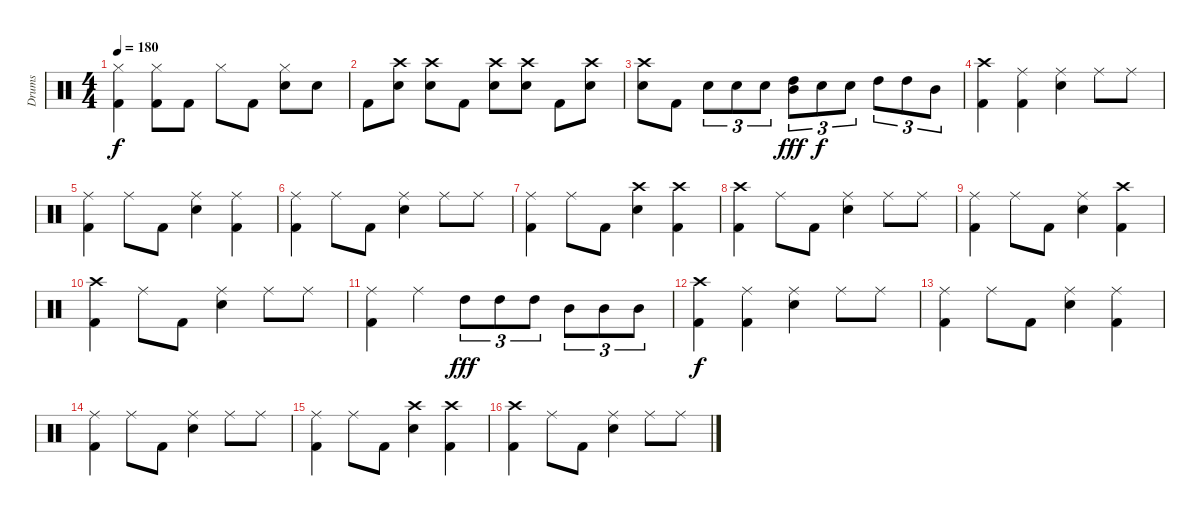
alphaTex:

\track ("Drums" "Drums") {instrument percussion}
\staff {score}
\articulation defaults
\ts (4 4)
\tempo 180
\clef neutral
\ks c
("Hi-Hat (closed)" "Kick (hit) 2").4{dy f} ("Hi-Hat (closed)" "Kick (hit) 2").8 "Kick (hit) 2".8 "Hi-Hat (closed)".8 "Kick (hit) 2".8 ("Hi-Hat (closed)" "Snare (hit) 2").8 "Snare (hit) 2".8 |
"Kick (hit) 2".8 ("Crash high (hit)" "Snare (hit) 2").8 ("Crash high (hit)" "Snare (hit) 2").8 "Kick (hit) 2".8 ("Crash high (hit)" "Snare (hit) 2").8 ("Crash high (hit)" "Snare (hit) 2").8 "Kick (hit) 2".8 ("Crash high (hit)" "Snare (hit) 2").8 |
("Crash high (hit)" "Snare (hit) 2").8 "Kick (hit) 2".8 "Snare (hit) 2".8{tu (3 2)} "Snare (hit) 2".8{tu (3 2)} "Snare (hit) 2".8{tu (3 2)} ("High Tom (hit)" "Mid Tom (hit)").8{tu (3 2) dy fff} "Snare (hit) 2".8{tu (3 2) dy f} "Snare (hit) 2".8{tu (3 2)} "High Tom (hit)".8{tu (3 2)} "High Tom (hit)".8{tu (3 2)} "Mid Tom (hit)".8{tu (3 2)} |
("Crash high (hit)" "Kick (hit) 2").4 ("Ride (middle)" "Kick (hit) 2").4 ("Ride (middle)" "Snare (hit) 2").4 "Ride (middle)".8 "Ride (middle)".8 |
("Ride (middle)" "Kick (hit) 2").4 "Ride (middle)".8 "Kick (hit) 2".8 ("Ride (middle)" "Snare (hit) 2").4 ("Ride (middle)" "Kick (hit) 2").4 |
("Ride (middle)" "Kick (hit) 2").4 "Ride (middle)".8 "Kick (hit) 2".8 ("Ride (middle)" "Snare (hit) 2").4 "Ride (middle)".8 "Ride (middle)".8 |
("Ride (middle)" "Kick (hit) 2").4 "Ride (middle)".8 "Kick (hit) 2".8 ("Crash high (hit)" "Snare (hit) 2").4 ("Crash high (hit)" "Kick (hit) 2").4 |
("Crash high (hit)" "Kick (hit) 2").4 "Ride (middle)".8 "Kick (hit) 2".8 ("Ride (middle)" "Snare (hit) 2").4 "Ride (middle)".8 "Ride (middle)".8 |
("Ride (middle)" "Kick (hit) 2").4 "Ride (middle)".8 "Kick (hit) 2".8 ("Ride (middle)" "Snare (hit) 2").4 ("Crash high (hit)" "Kick (hit) 2").4 |
("Crash high (hit)" "Kick (hit) 2").4 "Ride (middle)".8 "Kick (hit) 2".8 ("Ride (middle)" "Snare (hit) 2").4 "Ride (middle)".8 "Ride (middle)".8 |
("Ride (middle)" "Kick (hit) 2").4 "Ride (middle)".4 "High Tom (hit)".8{tu (3 2) dy fff} "High Tom (hit)".8{tu (3 2)} "High Tom (hit)".8{tu (3 2)} "Mid Tom (hit)".8{tu (3 2)} "Mid Tom (hit)".8{tu (3 2)} "Mid Tom (hit)".8{tu (3 2)} |
("Crash high (hit)" "Kick (hit) 2").4{dy f} ("Ride (middle)" "Kick (hit) 2").4 ("Ride (middle)" "Snare (hit) 2").4 "Ride (middle)".8 "Ride (middle)".8 |
("Ride (middle)" "Kick (hit) 2").4 "Ride (middle)".8 "Kick (hit) 2".8 ("Ride (middle)" "Snare (hit) 2").4 ("Ride (middle)" "Kick (hit) 2").4 |
("Ride (middle)" "Kick (hit) 2").4 "Ride (middle)".8 "Kick (hit) 2".8 ("Ride (middle)" "Snare (hit) 2").4 "Ride (middle)".8 "Ride (middle)".8 |
("Ride (middle)" "Kick (hit) 2").4 "Ride (middle)".8 "Kick (hit) 2".8 ("Crash high (hit)" "Snare (hit) 2").4 ("Crash high (hit)" "Kick (hit) 2").4 |
("Crash high (hit)" "Kick (hit) 2").4 "Ride (middle)".8 "Kick (hit) 2".8 ("Ride (middle)" "Snare (hit) 2").4 "Ride (middle)".8 "Ride (middle)".8
